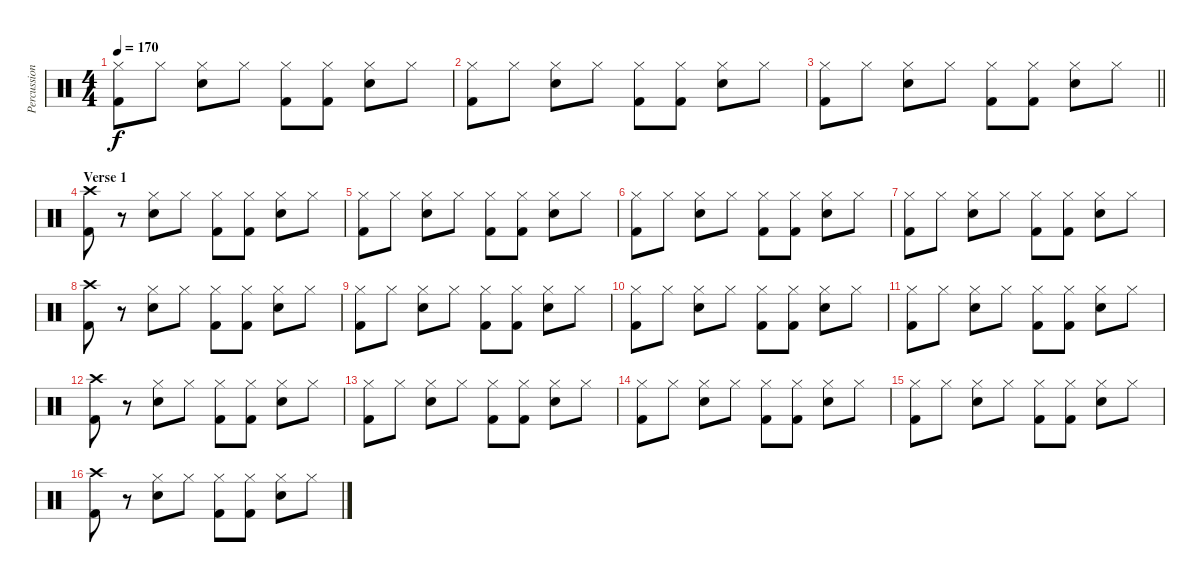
\track ("Percussion" "Percussion") {instrument percussion}
\staff {score}
\articulation defaults
\ts (4 4)
\tempo 170
\clef neutral
\ks c
("Hi-Hat (closed)" "Kick (hit) 2").8{dy f} "Hi-Hat (closed)".8 ("Hi-Hat (closed)" "Snare (hit) 2").8 "Hi-Hat (closed)".8 ("Hi-Hat (closed)" "Kick (hit) 2").8 ("Hi-Hat (closed)" "Kick (hit) 2").8 ("Hi-Hat (closed)" "Snare (hit) 2").8 "Hi-Hat (closed)".8 |
("Hi-Hat (closed)" "Kick (hit) 2").8 "Hi-Hat (closed)".8 ("Hi-Hat (closed)" "Snare (hit) 2").8 "Hi-Hat (closed)".8 ("Hi-Hat (closed)" "Kick (hit) 2").8 ("Hi-Hat (closed)" "Kick (hit) 2").8 ("Hi-Hat (closed)" "Snare (hit) 2").8 "Hi-Hat (closed)".8 |
\barLineRight lightlight
("Hi-Hat (closed)" "Kick (hit) 2").8 "Hi-Hat (closed)".8 ("Hi-Hat (closed)" "Snare (hit) 2").8 "Hi-Hat (closed)".8 ("Hi-Hat (closed)" "Kick (hit) 2").8 ("Hi-Hat (closed)" "Kick (hit) 2").8 ("Hi-Hat (closed)" "Snare (hit) 2").8 "Hi-Hat (closed)".8 |
\section ("" "Verse 1")
("Crash high (hit)" "Kick (hit) 2").8 r.8 ("Hi-Hat (closed)" "Snare (hit) 2").8 "Hi-Hat (closed)".8 ("Hi-Hat (closed)" "Kick (hit) 2").8 ("Hi-Hat (closed)" "Kick (hit) 2").8 ("Hi-Hat (closed)" "Snare (hit) 2").8 "Hi-Hat (closed)".8 |
("Hi-Hat (closed)" "Kick (hit) 2").8 "Hi-Hat (closed)".8 ("Hi-Hat (closed)" "Snare (hit) 2").8 "Hi-Hat (closed)".8 ("Hi-Hat (closed)" "Kick (hit) 2").8 ("Hi-Hat (closed)" "Kick (hit) 2").8 ("Hi-Hat (closed)" "Snare (hit) 2").8 "Hi-Hat (closed)".8 |
("Hi-Hat (closed)" "Kick (hit) 2").8 "Hi-Hat (closed)".8 ("Hi-Hat (closed)" "Snare (hit) 2").8 "Hi-Hat (closed)".8 ("Hi-Hat (closed)" "Kick (hit) 2").8 ("Hi-Hat (closed)" "Kick (hit) 2").8 ("Hi-Hat (closed)" "Snare (hit) 2").8 "Hi-Hat (closed)".8 |
("Hi-Hat (closed)" "Kick (hit) 2").8 "Hi-Hat (closed)".8 ("Hi-Hat (closed)" "Snare (hit) 2").8 "Hi-Hat (closed)".8 ("Hi-Hat (closed)" "Kick (hit) 2").8 ("Hi-Hat (closed)" "Kick (hit) 2").8 ("Hi-Hat (closed)" "Snare (hit) 2").8 "Hi-Hat (closed)".8 |
("Crash high (hit)" "Kick (hit) 2").8 r.8 ("Hi-Hat (closed)" "Snare (hit) 2").8 "Hi-Hat (closed)".8 ("Hi-Hat (closed)" "Kick (hit) 2").8 ("Hi-Hat (closed)" "Kick (hit) 2").8 ("Hi-Hat (closed)" "Snare (hit) 2").8 "Hi-Hat (closed)".8 |
("Hi-Hat (closed)" "Kick (hit) 2").8 "Hi-Hat (closed)".8 ("Hi-Hat (closed)" "Snare (hit) 2").8 "Hi-Hat (closed)".8 ("Hi-Hat (closed)" "Kick (hit) 2").8 ("Hi-Hat (closed)" "Kick (hit) 2").8 ("Hi-Hat (closed)" "Snare (hit) 2").8 "Hi-Hat (closed)".8 |
("Hi-Hat (closed)" "Kick (hit) 2").8 "Hi-Hat (closed)".8 ("Hi-Hat (closed)" "Snare (hit) 2").8 "Hi-Hat (closed)".8 ("Hi-Hat (closed)" "Kick (hit) 2").8 ("Hi-Hat (closed)" "Kick (hit) 2").8 ("Hi-Hat (closed)" "Snare (hit) 2").8 "Hi-Hat (closed)".8 |
("Hi-Hat (closed)" "Kick (hit) 2").8 "Hi-Hat (closed)".8 ("Hi-Hat (closed)" "Snare (hit) 2").8 "Hi-Hat (closed)".8 ("Hi-Hat (closed)" "Kick (hit) 2").8 ("Hi-Hat (closed)" "Kick (hit) 2").8 ("Hi-Hat (closed)" "Snare (hit) 2").8 "Hi-Hat (closed)".8 |
("Crash high (hit)" "Kick (hit) 2").8 r.8 ("Hi-Hat (closed)" "Snare (hit) 2").8 "Hi-Hat (closed)".8 ("Hi-Hat (closed)" "Kick (hit) 2").8 ("Hi-Hat (closed)" "Kick (hit) 2").8 ("Hi-Hat (closed)" "Snare (hit) 2").8 "Hi-Hat (closed)".8 |
("Hi-Hat (closed)" "Kick (hit) 2").8 "Hi-Hat (closed)".8 ("Hi-Hat (closed)" "Snare (hit) 2").8 "Hi-Hat (closed)".8 ("Hi-Hat (closed)" "Kick (hit) 2").8 ("Hi-Hat (closed)" "Kick (hit) 2").8 ("Hi-Hat (closed)" "Snare (hit) 2").8 "Hi-Hat (closed)".8 |
("Hi-Hat (closed)" "Kick (hit) 2").8 "Hi-Hat (closed)".8 ("Hi-Hat (closed)" "Snare (hit) 2").8 "Hi-Hat (closed)".8 ("Hi-Hat (closed)" "Kick (hit) 2").8 ("Hi-Hat (closed)" "Kick (hit) 2").8 ("Hi-Hat (closed)" "Snare (hit) 2").8 "Hi-Hat (closed)".8 |
("Hi-Hat (closed)" "Kick (hit) 2").8 "Hi-Hat (closed)".8 ("Hi-Hat (closed)" "Snare (hit) 2").8 "Hi-Hat (closed)".8 ("Hi-Hat (closed)" "Kick (hit) 2").8 ("Hi-Hat (closed)" "Kick (hit) 2").8 ("Hi-Hat (closed)" "Snare (hit) 2").8 "Hi-Hat (closed)".8 |
("Crash high (hit)" "Kick (hit) 2").8 r.8 ("Hi-Hat (closed)" "Snare (hit) 2").8 "Hi-Hat (closed)".8 ("Hi-Hat (closed)" "Kick (hit) 2").8 ("Hi-Hat (closed)" "Kick (hit) 2").8 ("Hi-Hat (closed)" "Snare (hit) 2").8 "Hi-Hat (closed)".8
